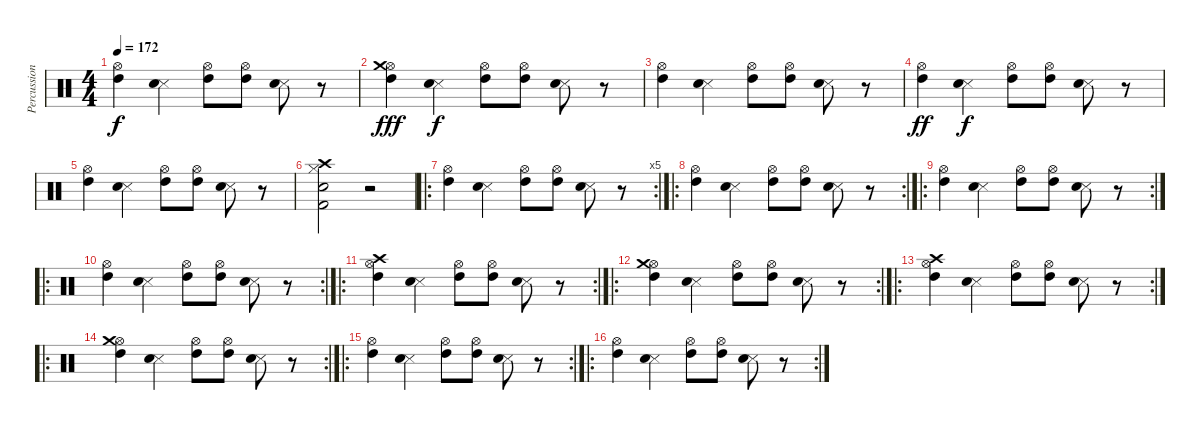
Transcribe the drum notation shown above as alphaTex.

\track ("Percussion" "Percussion") {instrument percussion}
\staff {score}
\articulation defaults
\ts (4 4)
\tempo 172
\clef neutral
\ks c
("Hi-Hat (open)" "High Tom (hit)").4{dy f} ("Snare (side stick) 3" "Electric Snare (hit)").4 ("Hi-Hat (open)" "High Tom (hit)").8 ("Hi-Hat (open)" "High Tom (hit)").8 ("Snare (side stick) 3" "Electric Snare (hit)").8 r.8 |
("Hi-Hat (open)" "High Tom (hit)" "Crash medium (hit)").4{dy fff} ("Snare (side stick) 3" "Electric Snare (hit)").4{dy f} ("Hi-Hat (open)" "High Tom (hit)").8 ("Hi-Hat (open)" "High Tom (hit)").8 ("Snare (side stick) 3" "Electric Snare (hit)").8 r.8 |
("Hi-Hat (open)" "High Tom (hit)").4 ("Snare (side stick) 3" "Electric Snare (hit)").4 ("Hi-Hat (open)" "High Tom (hit)").8 ("Hi-Hat (open)" "High Tom (hit)").8 ("Snare (side stick) 3" "Electric Snare (hit)").8 r.8 |
("Hi-Hat (open)" "High Tom (hit)").4{dy ff} ("Snare (side stick) 3" "Electric Snare (hit)").4{dy f} ("Hi-Hat (open)" "High Tom (hit)").8 ("Hi-Hat (open)" "High Tom (hit)").8 ("Snare (side stick) 3" "Electric Snare (hit)").8 r.8 |
("Hi-Hat (open)" "High Tom (hit)").4 ("Snare (side stick) 3" "Electric Snare (hit)").4 ("Hi-Hat (open)" "High Tom (hit)").8 ("Hi-Hat (open)" "High Tom (hit)").8 ("Snare (side stick) 3" "Electric Snare (hit)").8 r.8 |
("Kick (hit) 2" "Electric Snare (hit)" "Crash high (hit)" "Hi-Hat (closed)").2 r.2 |
\ro
\rc 5
("Hi-Hat (open)" "High Tom (hit)").4 ("Snare (side stick) 3" "Electric Snare (hit)").4 ("Hi-Hat (open)" "High Tom (hit)").8 ("Hi-Hat (open)" "High Tom (hit)").8 ("Snare (side stick) 3" "Electric Snare (hit)").8 r.8 |
\ro
\rc 2
("Hi-Hat (open)" "High Tom (hit)").4 ("Snare (side stick) 3" "Electric Snare (hit)").4 ("Hi-Hat (open)" "High Tom (hit)").8 ("Hi-Hat (open)" "High Tom (hit)").8 ("Snare (side stick) 3" "Electric Snare (hit)").8 r.8 |
\ro
\rc 2
("Hi-Hat (open)" "High Tom (hit)").4 ("Snare (side stick) 3" "Electric Snare (hit)").4 ("Hi-Hat (open)" "High Tom (hit)").8 ("Hi-Hat (open)" "High Tom (hit)").8 ("Snare (side stick) 3" "Electric Snare (hit)").8 r.8 |
\ro
\rc 2
("Hi-Hat (open)" "High Tom (hit)").4 ("Snare (side stick) 3" "Electric Snare (hit)").4 ("Hi-Hat (open)" "High Tom (hit)").8 ("Hi-Hat (open)" "High Tom (hit)").8 ("Snare (side stick) 3" "Electric Snare (hit)").8 r.8 |
\ro
\rc 2
("Hi-Hat (open)" "High Tom (hit)" "Crash high (hit)").4 ("Snare (side stick) 3" "Electric Snare (hit)").4 ("Hi-Hat (open)" "High Tom (hit)").8 ("Hi-Hat (open)" "High Tom (hit)").8 ("Snare (side stick) 3" "Electric Snare (hit)").8 r.8 |
\ro
\rc 2
("Hi-Hat (open)" "High Tom (hit)" "Crash medium (hit)").4 ("Snare (side stick) 3" "Electric Snare (hit)").4 ("Hi-Hat (open)" "High Tom (hit)").8 ("Hi-Hat (open)" "High Tom (hit)").8 ("Snare (side stick) 3" "Electric Snare (hit)").8 r.8 |
\ro
\rc 2
("Hi-Hat (open)" "High Tom (hit)" "Crash high (hit)").4 ("Snare (side stick) 3" "Electric Snare (hit)").4 ("Hi-Hat (open)" "High Tom (hit)").8 ("Hi-Hat (open)" "High Tom (hit)").8 ("Snare (side stick) 3" "Electric Snare (hit)").8 r.8 |
\ro
\rc 2
("Hi-Hat (open)" "High Tom (hit)" "Crash medium (hit)").4 ("Snare (side stick) 3" "Electric Snare (hit)").4 ("Hi-Hat (open)" "High Tom (hit)").8 ("Hi-Hat (open)" "High Tom (hit)").8 ("Snare (side stick) 3" "Electric Snare (hit)").8 r.8 |
\ro
\rc 2
("Hi-Hat (open)" "High Tom (hit)").4 ("Snare (side stick) 3" "Electric Snare (hit)").4 ("Hi-Hat (open)" "High Tom (hit)").8 ("Hi-Hat (open)" "High Tom (hit)").8 ("Snare (side stick) 3" "Electric Snare (hit)").8 r.8 |
\ro
\rc 2
("Hi-Hat (open)" "High Tom (hit)").4 ("Snare (side stick) 3" "Electric Snare (hit)").4 ("Hi-Hat (open)" "High Tom (hit)").8 ("Hi-Hat (open)" "High Tom (hit)").8 ("Snare (side stick) 3" "Electric Snare (hit)").8 r.8
